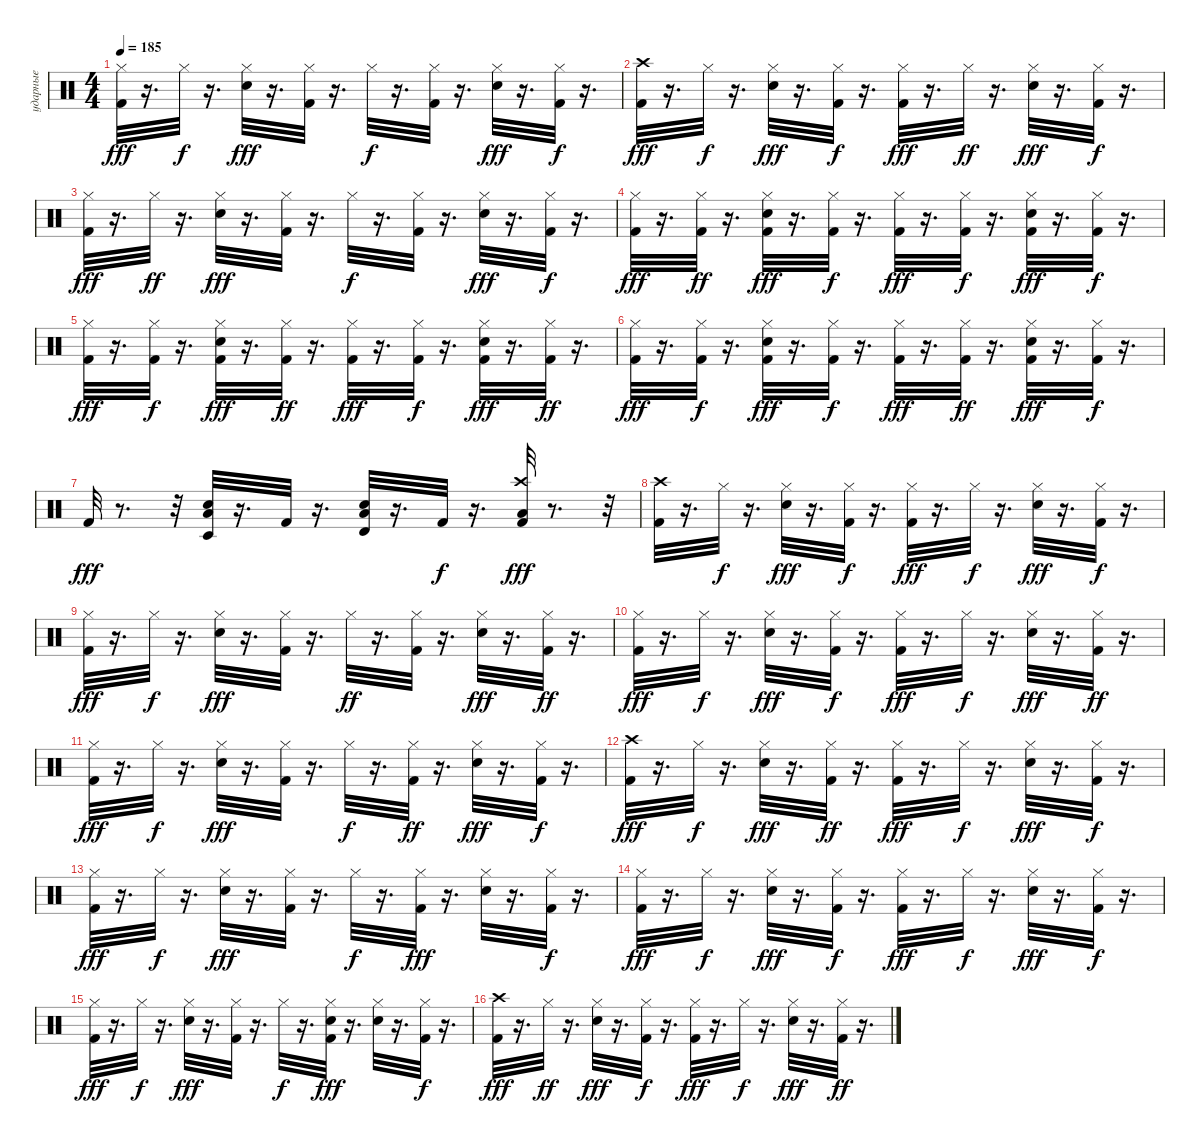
\track ("ударные" "ударные") {instrument percussion}
\staff {score}
\articulation defaults
\ts (4 4)
\tempo 185
\clef neutral
\ks c
("Hi-Hat (closed)" "Kick (hit) 2").32{dy fff} r.16{d} "Hi-Hat (closed)".32{dy f} r.16{d} ("Hi-Hat (closed)" "Electric Snare (hit)").32{dy fff} r.16{d} ("Hi-Hat (closed)" "Kick (hit) 2").32 r.16{d} "Hi-Hat (closed)".32{dy f} r.16{d} ("Kick (hit) 2" "Hi-Hat (closed)").32 r.16{d} ("Hi-Hat (closed)" "Electric Snare (hit)").32{dy fff} r.16{d} ("Hi-Hat (closed)" "Kick (hit) 2").32{dy f} r.16{d} |
("Crash high (hit)" "Kick (hit) 2").32{dy fff} r.16{d} "Hi-Hat (closed)".32{dy f} r.16{d} ("Hi-Hat (closed)" "Electric Snare (hit)").32{dy fff} r.16{d} ("Hi-Hat (closed)" "Kick (hit) 2").32{dy f} r.16{d} ("Hi-Hat (closed)" "Kick (hit) 2").32{dy fff} r.16{d} "Hi-Hat (closed)".32{dy ff} r.16{d} ("Hi-Hat (closed)" "Electric Snare (hit)").32{dy fff} r.16{d} ("Hi-Hat (closed)" "Kick (hit) 2").32{dy f} r.16{d} |
("Hi-Hat (closed)" "Kick (hit) 2").32{dy fff} r.16{d} "Hi-Hat (closed)".32{dy ff} r.16{d} ("Hi-Hat (closed)" "Electric Snare (hit)").32{dy fff} r.16{d} ("Hi-Hat (closed)" "Kick (hit) 2").32 r.16{d} "Hi-Hat (closed)".32{dy f} r.16{d} ("Kick (hit) 2" "Hi-Hat (closed)").32 r.16{d} ("Hi-Hat (closed)" "Electric Snare (hit)").32{dy fff} r.16{d} ("Hi-Hat (closed)" "Kick (hit) 2").32{dy f} r.16{d} |
("Hi-Hat (closed)" "Kick (hit) 2").32{dy fff} r.16{d} ("Kick (hit) 2" "Hi-Hat (closed)").32{dy ff} r.16{d} ("Kick (hit) 2" "Hi-Hat (closed)" "Electric Snare (hit)").32{dy fff} r.16{d} ("Kick (hit) 2" "Hi-Hat (closed)").32{dy f} r.16{d} ("Hi-Hat (closed)" "Kick (hit) 2").32{dy fff} r.16{d} ("Kick (hit) 2" "Hi-Hat (closed)").32{dy f} r.16{d} ("Kick (hit) 2" "Hi-Hat (closed)" "Electric Snare (hit)").32{dy fff} r.16{d} ("Hi-Hat (closed)" "Kick (hit) 2").32{dy f} r.16{d} |
("Hi-Hat (closed)" "Kick (hit) 2").32{dy fff} r.16{d} ("Kick (hit) 2" "Hi-Hat (closed)").32{dy f} r.16{d} ("Kick (hit) 2" "Hi-Hat (closed)" "Electric Snare (hit)").32{dy fff} r.16{d} ("Kick (hit) 2" "Hi-Hat (closed)").32{dy ff} r.16{d} ("Hi-Hat (closed)" "Kick (hit) 2").32{dy fff} r.16{d} ("Kick (hit) 2" "Hi-Hat (closed)").32{dy f} r.16{d} ("Kick (hit) 2" "Hi-Hat (closed)" "Electric Snare (hit)").32{dy fff} r.16{d} ("Hi-Hat (closed)" "Kick (hit) 2").32{dy ff} r.16{d} |
("Hi-Hat (closed)" "Kick (hit) 2").32{dy fff} r.16{d} ("Kick (hit) 2" "Hi-Hat (closed)").32{dy f} r.16{d} ("Kick (hit) 2" "Hi-Hat (closed)" "Electric Snare (hit)").32{dy fff} r.16{d} ("Kick (hit) 2" "Hi-Hat (closed)").32{dy f} r.16{d} ("Hi-Hat (closed)" "Kick (hit) 2").32{dy fff} r.16{d} ("Kick (hit) 2" "Hi-Hat (closed)").32{dy ff} r.16{d} ("Kick (hit) 2" "Hi-Hat (closed)" "Electric Snare (hit)").32{dy fff} r.16{d} ("Hi-Hat (closed)" "Kick (hit) 2").32{dy f} r.16{d} |
"Kick (hit) 2".32{dy fff} r.8{d} r.32 ("Timbale low (hit)" "Low Floor Tom (hit)" "Electric Snare (hit)").32 r.16{d} "Kick (hit) 2".32 r.16{d} ("Timbale high (hit)" "Low Floor Tom (hit)" "Electric Snare (hit)").32 r.16{d} "Kick (hit) 2".32{dy f} r.16{d} ("Low Floor Tom (hit)" "Crash high (hit)" "Kick (hit) 2").32{dy fff} r.8{d} r.32 |
("Crash high (hit)" "Kick (hit) 2").32 r.16{d} "Hi-Hat (closed)".32{dy f} r.16{d} ("Hi-Hat (closed)" "Electric Snare (hit)").32{dy fff} r.16{d} ("Hi-Hat (closed)" "Kick (hit) 2").32{dy f} r.16{d} ("Hi-Hat (closed)" "Kick (hit) 2").32{dy fff} r.16{d} "Hi-Hat (closed)".32{dy f} r.16{d} ("Hi-Hat (closed)" "Electric Snare (hit)").32{dy fff} r.16{d} ("Hi-Hat (closed)" "Kick (hit) 2").32{dy f} r.16{d} |
("Hi-Hat (closed)" "Kick (hit) 2").32{dy fff} r.16{d} "Hi-Hat (closed)".32{dy f} r.16{d} ("Hi-Hat (closed)" "Electric Snare (hit)").32{dy fff} r.16{d} ("Hi-Hat (closed)" "Kick (hit) 2").32 r.16{d} "Hi-Hat (closed)".32{dy ff} r.16{d} ("Kick (hit) 2" "Hi-Hat (closed)").32 r.16{d} ("Hi-Hat (closed)" "Electric Snare (hit)").32{dy fff} r.16{d} ("Hi-Hat (closed)" "Kick (hit) 2").32{dy ff} r.16{d} |
("Hi-Hat (closed)" "Kick (hit) 2").32{dy fff} r.16{d} "Hi-Hat (closed)".32{dy f} r.16{d} ("Hi-Hat (closed)" "Electric Snare (hit)").32{dy fff} r.16{d} ("Hi-Hat (closed)" "Kick (hit) 2").32{dy f} r.16{d} ("Hi-Hat (closed)" "Kick (hit) 2").32{dy fff} r.16{d} "Hi-Hat (closed)".32{dy f} r.16{d} ("Hi-Hat (closed)" "Electric Snare (hit)").32{dy fff} r.16{d} ("Hi-Hat (closed)" "Kick (hit) 2").32{dy ff} r.16{d} |
("Hi-Hat (closed)" "Kick (hit) 2").32{dy fff} r.16{d} "Hi-Hat (closed)".32{dy f} r.16{d} ("Hi-Hat (closed)" "Electric Snare (hit)").32{dy fff} r.16{d} ("Hi-Hat (closed)" "Kick (hit) 2").32 r.16{d} "Hi-Hat (closed)".32{dy f} r.16{d} ("Kick (hit) 2" "Hi-Hat (closed)").32{dy ff} r.16{d} ("Hi-Hat (closed)" "Electric Snare (hit)").32{dy fff} r.16{d} ("Hi-Hat (closed)" "Kick (hit) 2").32{dy f} r.16{d} |
("Crash high (hit)" "Kick (hit) 2").32{dy fff} r.16{d} "Hi-Hat (closed)".32{dy f} r.16{d} ("Hi-Hat (closed)" "Electric Snare (hit)").32{dy fff} r.16{d} ("Hi-Hat (closed)" "Kick (hit) 2").32{dy ff} r.16{d} ("Hi-Hat (closed)" "Kick (hit) 2").32{dy fff} r.16{d} "Hi-Hat (closed)".32{dy f} r.16{d} ("Hi-Hat (closed)" "Electric Snare (hit)").32{dy fff} r.16{d} ("Hi-Hat (closed)" "Kick (hit) 2").32{dy f} r.16{d} |
("Hi-Hat (closed)" "Kick (hit) 2").32{dy fff} r.16{d} "Hi-Hat (closed)".32{dy f} r.16{d} ("Hi-Hat (closed)" "Electric Snare (hit)").32{dy fff} r.16{d} ("Hi-Hat (closed)" "Kick (hit) 2").32 r.16{d} "Hi-Hat (closed)".32{dy f} r.16{d} ("Kick (hit) 2" "Hi-Hat (closed)").32{dy fff} r.16{d} ("Hi-Hat (closed)" "Electric Snare (hit)").32 r.16{d} ("Hi-Hat (closed)" "Kick (hit) 2").32{dy f} r.16{d} |
("Hi-Hat (closed)" "Kick (hit) 2").32{dy fff} r.16{d} "Hi-Hat (closed)".32{dy f} r.16{d} ("Hi-Hat (closed)" "Electric Snare (hit)").32{dy fff} r.16{d} ("Hi-Hat (closed)" "Kick (hit) 2").32{dy f} r.16{d} ("Hi-Hat (closed)" "Kick (hit) 2").32{dy fff} r.16{d} "Hi-Hat (closed)".32{dy f} r.16{d} ("Hi-Hat (closed)" "Electric Snare (hit)").32{dy fff} r.16{d} ("Hi-Hat (closed)" "Kick (hit) 2").32{dy f} r.16{d} |
("Hi-Hat (closed)" "Kick (hit) 2").32{dy fff} r.16{d} "Hi-Hat (closed)".32{dy f} r.16{d} ("Hi-Hat (closed)" "Electric Snare (hit)").32{dy fff} r.16{d} ("Hi-Hat (closed)" "Kick (hit) 2").32 r.16{d} "Hi-Hat (closed)".32{dy f} r.16{d} ("Electric Snare (hit)" "Kick (hit) 2" "Hi-Hat (closed)").32{dy fff} r.16{d} ("Hi-Hat (closed)" "Electric Snare (hit)").32 r.16{d} ("Hi-Hat (closed)" "Kick (hit) 2").32{dy f} r.16{d} |
("Crash high (hit)" "Kick (hit) 2").32{dy fff} r.16{d} "Hi-Hat (closed)".32{dy ff} r.16{d} ("Hi-Hat (closed)" "Electric Snare (hit)").32{dy fff} r.16{d} ("Hi-Hat (closed)" "Kick (hit) 2").32{dy f} r.16{d} ("Hi-Hat (closed)" "Kick (hit) 2").32{dy fff} r.16{d} "Hi-Hat (closed)".32{dy f} r.16{d} ("Hi-Hat (closed)" "Electric Snare (hit)").32{dy fff} r.16{d} ("Hi-Hat (closed)" "Kick (hit) 2").32{dy ff} r.16{d}
